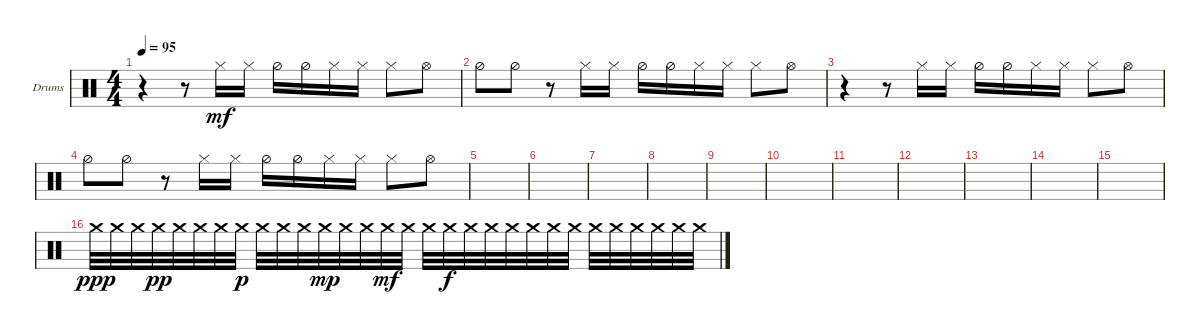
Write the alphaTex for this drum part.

\defaultSystemsLayout 4
\bracketExtendMode groupsimilarinstruments
\firstSystemTrackNameOrientation horizontal
\otherSystemsTrackNameOrientation horizontal
\track ("Drumkit" "Drums") {instrument percussion}
\staff {score}
\articulation defaults
\ts (4 4)
\tempo 95
\clef neutral
\scale
0.472222
\ks c
r.4{dy mf} r.8 "Hi-Hat (closed)".16 "Hi-Hat (closed)".16 "Hi-Hat (half)".16 "Hi-Hat (half)".16 "Hi-Hat (closed)".16 "Hi-Hat (closed)".16 "Hi-Hat (closed)".8 "Hi-Hat (open)".8 |
\scale
0.263889 "Hi-Hat (half)".8 "Hi-Hat (half)".8 r.8 "Hi-Hat (closed)".16 "Hi-Hat (closed)".16 "Hi-Hat (half)".16 "Hi-Hat (half)".16 "Hi-Hat (closed)".16 "Hi-Hat (closed)".16 "Hi-Hat (closed)".8 "Hi-Hat (open)".8 |
\scale
0.263889 r.4 r.8 "Hi-Hat (closed)".16 "Hi-Hat (closed)".16 "Hi-Hat (half)".16 "Hi-Hat (half)".16 "Hi-Hat (closed)".16 "Hi-Hat (closed)".16 "Hi-Hat (closed)".8 "Hi-Hat (open)".8 |
\scale
0.333333 "Hi-Hat (half)".8 "Hi-Hat (half)".8 r.8 "Hi-Hat (closed)".16 "Hi-Hat (closed)".16 "Hi-Hat (half)".16 "Hi-Hat (half)".16 "Hi-Hat (closed)".16 "Hi-Hat (closed)".16 "Hi-Hat (closed)".8 "Hi-Hat (open)".8 |
\scale
0.333333 |
\scale
0.333333 |
\scale
0.333333 |
\scale
0.333333 |
\scale
0.333333 |
\scale
0.333333 |
\scale
0.333333 |
\scale
0.333333 |
\scale
0.333333 |
\scale
0.333333 |
\scale
0.333333 |
\scale
0.333333 "Crash medium (hit)".32{dy ppp} "Crash medium (hit)".32 "Crash medium (hit)".32 "Crash medium (hit)".32{dy pp} "Crash medium (hit)".32 "Crash medium (hit)".32 "Crash medium (hit)".32 "Crash medium (hit)".32{dy p} "Crash medium (hit)".32 "Crash medium (hit)".32 "Crash medium (hit)".32 "Crash medium (hit)".32{dy mp} "Crash medium (hit)".32 "Crash medium (hit)".32 "Crash medium (hit)".32{dy mf} "Crash medium (hit)".32 "Crash medium (hit)".32 "Crash medium (hit)".32{dy f} "Crash medium (hit)".32 "Crash medium (hit)".32 "Crash medium (hit)".32 "Crash medium (hit)".32 "Crash medium (hit)".32 "Crash medium (hit)".32 "Crash medium (hit)".32 "Crash medium (hit)".32 "Crash medium (hit)".32 "Crash medium (hit)".32 "Crash medium (hit)".32 "Crash medium (hit)".32
